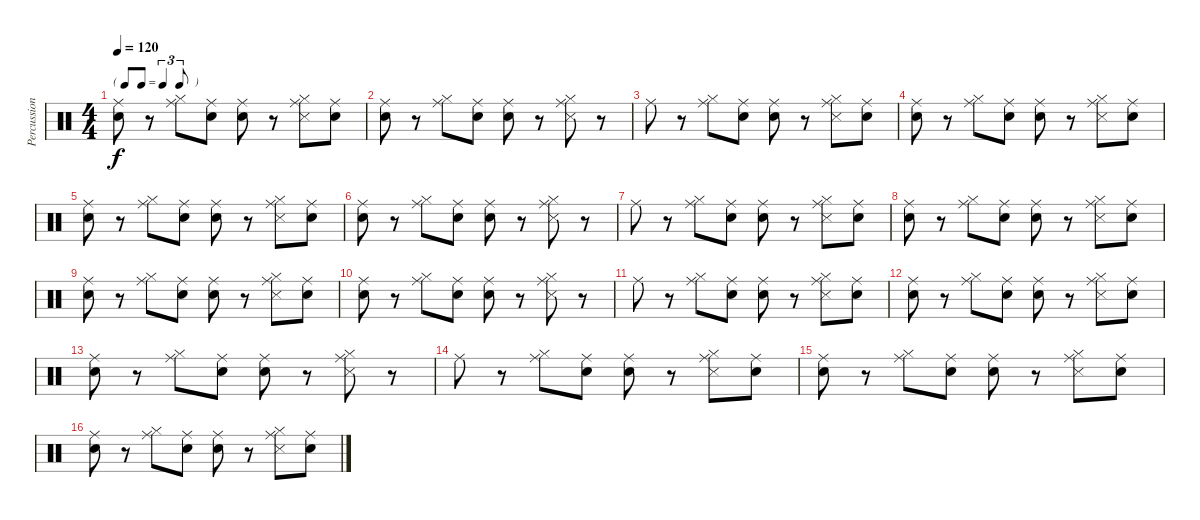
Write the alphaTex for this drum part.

\track ("Percussions" "Percussion") {instrument percussion}
\staff {score}
\articulation defaults
\ts (4 4)
\tf triplet8th
\tempo 120
\clef neutral
\ks c
("Snare (hit)" "Ride (middle)").8{dy f} r.8 ("Hi-Hat (closed)" "Ride (middle)").8 ("Snare (hit)" "Ride (middle)").8 ("Snare (hit)" "Ride (middle)").8 r.8 ("Hi-Hat (closed)" "Snare (side stick) 3" "Ride (middle)").8 ("Snare (hit)" "Ride (middle)").8 |
("Snare (hit)" "Ride (middle)").8 r.8 ("Hi-Hat (closed)" "Ride (middle)").8 ("Snare (hit)" "Ride (middle)").8 ("Snare (hit)" "Ride (middle)").8 r.8 ("Hi-Hat (closed)" "Snare (side stick) 3" "Ride (middle)").8 r.8 |
"Ride (middle)".8 r.8 ("Hi-Hat (closed)" "Ride (middle)").8 ("Snare (hit)" "Ride (middle)").8 ("Snare (hit)" "Ride (middle)").8 r.8 ("Hi-Hat (closed)" "Snare (side stick) 3" "Ride (middle)").8 ("Snare (hit)" "Ride (middle)").8 |
("Snare (hit)" "Ride (middle)").8 r.8 ("Hi-Hat (closed)" "Ride (middle)").8 ("Snare (hit)" "Ride (middle)").8 ("Snare (hit)" "Ride (middle)").8 r.8 ("Hi-Hat (closed)" "Snare (side stick) 3" "Ride (middle)").8 ("Snare (hit)" "Ride (middle)").8 |
("Snare (hit)" "Ride (middle)").8 r.8 ("Hi-Hat (closed)" "Ride (middle)").8 ("Snare (hit)" "Ride (middle)").8 ("Snare (hit)" "Ride (middle)").8 r.8 ("Hi-Hat (closed)" "Snare (side stick) 3" "Ride (middle)").8 ("Snare (hit)" "Ride (middle)").8 |
("Snare (hit)" "Ride (middle)").8 r.8 ("Hi-Hat (closed)" "Ride (middle)").8 ("Snare (hit)" "Ride (middle)").8 ("Snare (hit)" "Ride (middle)").8 r.8 ("Hi-Hat (closed)" "Snare (side stick) 3" "Ride (middle)").8 r.8 |
"Ride (middle)".8 r.8 ("Hi-Hat (closed)" "Ride (middle)").8 ("Snare (hit)" "Ride (middle)").8 ("Snare (hit)" "Ride (middle)").8 r.8 ("Hi-Hat (closed)" "Snare (side stick) 3" "Ride (middle)").8 ("Snare (hit)" "Ride (middle)").8 |
("Snare (hit)" "Ride (middle)").8 r.8 ("Hi-Hat (closed)" "Ride (middle)").8 ("Snare (hit)" "Ride (middle)").8 ("Snare (hit)" "Ride (middle)").8 r.8 ("Hi-Hat (closed)" "Snare (side stick) 3" "Ride (middle)").8 ("Snare (hit)" "Ride (middle)").8 |
("Snare (hit)" "Ride (middle)").8 r.8 ("Hi-Hat (closed)" "Ride (middle)").8 ("Snare (hit)" "Ride (middle)").8 ("Snare (hit)" "Ride (middle)").8 r.8 ("Hi-Hat (closed)" "Snare (side stick) 3" "Ride (middle)").8 ("Snare (hit)" "Ride (middle)").8 |
("Snare (hit)" "Ride (middle)").8 r.8 ("Hi-Hat (closed)" "Ride (middle)").8 ("Snare (hit)" "Ride (middle)").8 ("Snare (hit)" "Ride (middle)").8 r.8 ("Hi-Hat (closed)" "Snare (side stick) 3" "Ride (middle)").8 r.8 |
"Ride (middle)".8 r.8 ("Hi-Hat (closed)" "Ride (middle)").8 ("Snare (hit)" "Ride (middle)").8 ("Snare (hit)" "Ride (middle)").8 r.8 ("Hi-Hat (closed)" "Snare (side stick) 3" "Ride (middle)").8 ("Snare (hit)" "Ride (middle)").8 |
("Snare (hit)" "Ride (middle)").8 r.8 ("Hi-Hat (closed)" "Ride (middle)").8 ("Snare (hit)" "Ride (middle)").8 ("Snare (hit)" "Ride (middle)").8 r.8 ("Hi-Hat (closed)" "Snare (side stick) 3" "Ride (middle)").8 ("Snare (hit)" "Ride (middle)").8 |
("Snare (hit)" "Ride (middle)").8 r.8 ("Hi-Hat (closed)" "Ride (middle)").8 ("Snare (hit)" "Ride (middle)").8 ("Snare (hit)" "Ride (middle)").8 r.8 ("Hi-Hat (closed)" "Snare (side stick) 3" "Ride (middle)").8 r.8 |
"Ride (middle)".8 r.8 ("Hi-Hat (closed)" "Ride (middle)").8 ("Snare (hit)" "Ride (middle)").8 ("Snare (hit)" "Ride (middle)").8 r.8 ("Hi-Hat (closed)" "Snare (side stick) 3" "Ride (middle)").8 ("Snare (hit)" "Ride (middle)").8 |
("Snare (hit)" "Ride (middle)").8 r.8 ("Hi-Hat (closed)" "Ride (middle)").8 ("Snare (hit)" "Ride (middle)").8 ("Snare (hit)" "Ride (middle)").8 r.8 ("Hi-Hat (closed)" "Snare (side stick) 3" "Ride (middle)").8 ("Snare (hit)" "Ride (middle)").8 |
("Snare (hit)" "Ride (middle)").8 r.8 ("Hi-Hat (closed)" "Ride (middle)").8 ("Snare (hit)" "Ride (middle)").8 ("Snare (hit)" "Ride (middle)").8 r.8 ("Hi-Hat (closed)" "Snare (side stick) 3" "Ride (middle)").8 ("Snare (hit)" "Ride (middle)").8
